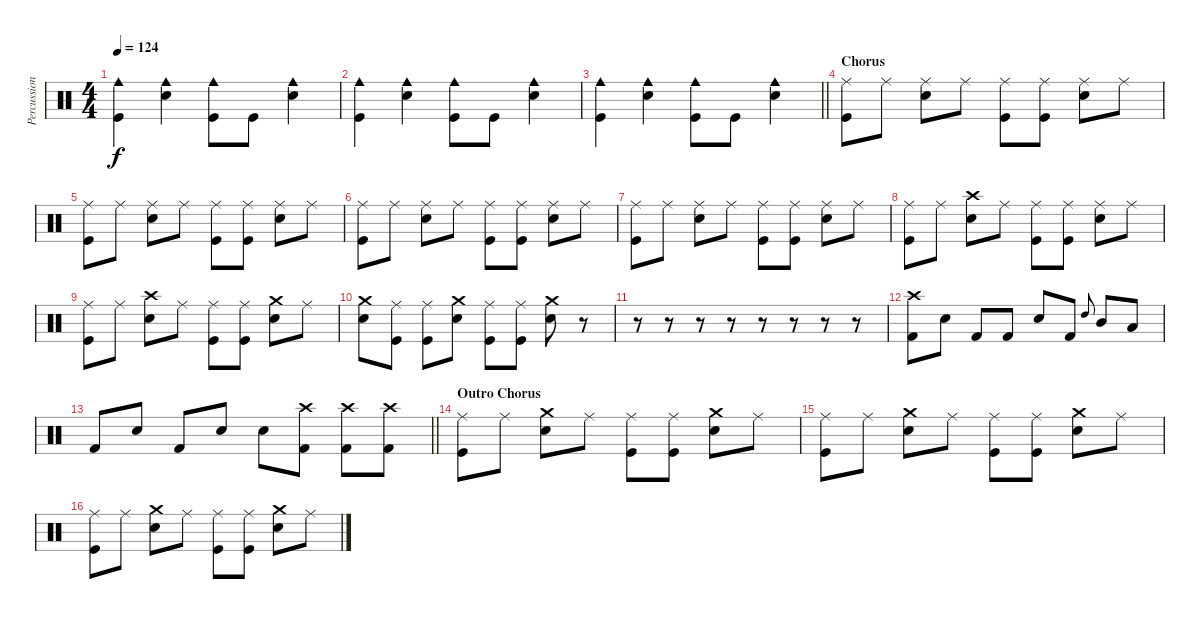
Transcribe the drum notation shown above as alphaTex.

\track ("Percussion" "Percussion") {instrument percussion}
\staff {score}
\articulation defaults
\ts (4 4)
\tempo 124
\clef neutral
\ks c
("Cowbell medium (hit)" "Kick (hit)").4{dy f} ("Cowbell medium (hit)" "Electric Snare (hit)").4 ("Cowbell medium (hit)" "Kick (hit)").8 "Kick (hit)".8 ("Cowbell medium (hit)" "Electric Snare (hit)").4 |
("Cowbell medium (hit)" "Kick (hit)").4 ("Cowbell medium (hit)" "Electric Snare (hit)").4 ("Cowbell medium (hit)" "Kick (hit)").8 "Kick (hit)".8 ("Cowbell medium (hit)" "Electric Snare (hit)").4 |
\barLineRight lightlight
("Cowbell medium (hit)" "Kick (hit)").4 ("Cowbell medium (hit)" "Electric Snare (hit)").4 ("Cowbell medium (hit)" "Kick (hit)").8 "Kick (hit)".8 ("Cowbell medium (hit)" "Electric Snare (hit)").4 |
\section ("" "Chorus")
("Ride (middle)" "Kick (hit)").8 "Ride (middle)".8 ("Ride (middle)" "Electric Snare (hit)").8 "Ride (middle)".8 ("Ride (middle)" "Kick (hit)").8 ("Ride (middle)" "Kick (hit)").8 ("Ride (middle)" "Electric Snare (hit)").8 "Ride (middle)".8 |
("Ride (middle)" "Kick (hit)").8 "Ride (middle)".8 ("Ride (middle)" "Electric Snare (hit)").8 "Ride (middle)".8 ("Ride (middle)" "Kick (hit)").8 ("Ride (middle)" "Kick (hit)").8 ("Ride (middle)" "Electric Snare (hit)").8 "Ride (middle)".8 |
("Ride (middle)" "Kick (hit)").8 "Ride (middle)".8 ("Ride (middle)" "Electric Snare (hit)").8 "Ride (middle)".8 ("Ride (middle)" "Kick (hit)").8 ("Ride (middle)" "Kick (hit)").8 ("Ride (middle)" "Electric Snare (hit)").8 "Ride (middle)".8 |
("Ride (middle)" "Kick (hit)").8 "Ride (middle)".8 ("Ride (middle)" "Electric Snare (hit)").8 "Ride (middle)".8 ("Ride (middle)" "Kick (hit)").8 ("Ride (middle)" "Kick (hit)").8 ("Ride (middle)" "Electric Snare (hit)").8 "Ride (middle)".8 |
("Ride (middle)" "Kick (hit)").8 "Ride (middle)".8 ("Crash high (hit)" "Electric Snare (hit)").8 "Ride (middle)".8 ("Ride (middle)" "Kick (hit)").8 ("Ride (middle)" "Kick (hit)").8 ("Ride (middle)" "Electric Snare (hit)").8 "Ride (middle)".8 |
("Ride (middle)" "Kick (hit)").8 "Ride (middle)".8 ("Crash high (hit)" "Electric Snare (hit)").8 "Ride (middle)".8 ("Ride (middle)" "Kick (hit)").8 ("Ride (middle)" "Kick (hit)").8 ("Crash medium (hit)" "Electric Snare (hit)").8 "Ride (middle)".8 |
("Crash medium (hit)" "Electric Snare (hit)").8 ("Ride (middle)" "Kick (hit)").8 ("Ride (middle)" "Kick (hit)").8 ("Crash medium (hit)" "Electric Snare (hit)").8 ("Ride (middle)" "Kick (hit)").8 ("Ride (middle)" "Kick (hit)").8 ("Crash medium (hit)" "Electric Snare (hit)").8 r.8 |
r.8 r.8 r.8 r.8 r.8 r.8 r.8 r.8 |
("Crash high (hit)" "Kick (hit) 2").8 "Snare (hit) 2".8 "Kick (hit) 2".8 "Kick (hit) 2".8 "Snare (hit) 2".8 "Kick (hit) 2".8 "High Tom (hit)".8{gr onbeat} "Mid Tom (hit)".8 "Low Tom (hit)".8 |
\barLineRight lightlight "Kick (hit) 2".8 "Snare (hit) 2".8 "Kick (hit) 2".8 "Snare (hit) 2".8 "Snare (hit) 2".8
("Crash high (hit)" "Kick (hit) 2").8 ("Crash high (hit)" "Kick (hit) 2").8 ("Crash high (hit)" "Kick (hit) 2").8 |
\section ("" "Outro Chorus")
("Ride (middle)" "Kick (hit)").8 "Ride (middle)".8 ("Crash medium (hit)" "Snare (hit) 2").8 "Ride (middle)".8 ("Ride (middle)" "Kick (hit)").8 ("Ride (middle)" "Kick (hit)").8 ("Crash medium (hit)" "Snare (hit) 2").8 "Ride (middle)".8 |
("Ride (middle)" "Kick (hit)").8 "Ride (middle)".8 ("Crash medium (hit)" "Snare (hit) 2").8 "Ride (middle)".8 ("Ride (middle)" "Kick (hit)").8 ("Ride (middle)" "Kick (hit)").8 ("Crash medium (hit)" "Snare (hit) 2").8 "Ride (middle)".8 |
("Ride (middle)" "Kick (hit)").8 "Ride (middle)".8 ("Crash medium (hit)" "Snare (hit) 2").8 "Ride (middle)".8 ("Ride (middle)" "Kick (hit)").8 ("Ride (middle)" "Kick (hit)").8 ("Crash medium (hit)" "Snare (hit) 2").8 "Ride (middle)".8
